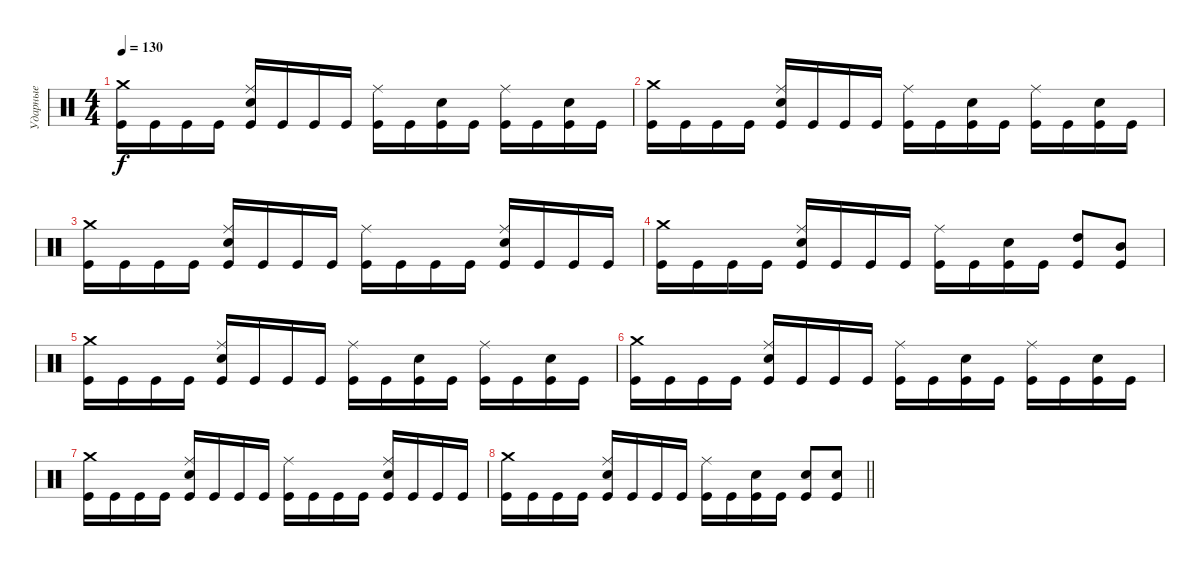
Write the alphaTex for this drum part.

\track ("Ударные" "Ударные") {instrument percussion}
\staff {score}
\articulation defaults
\ts (4 4)
\tempo 130
\clef neutral
\ks c
("Crash medium (hit)" "Kick (hit)").16{dy f} "Kick (hit)".16 "Kick (hit)".16 "Kick (hit)".16 ("Ride (middle)" "Electric Snare (hit)" "Kick (hit)").16 "Kick (hit)".16 "Kick (hit)".16 "Kick (hit)".16 ("Ride (middle)" "Kick (hit)").16 "Kick (hit)".16 ("Electric Snare (hit)" "Kick (hit)").16 "Kick (hit)".16 ("Ride (middle)" "Kick (hit)").16 "Kick (hit)".16 ("Electric Snare (hit)" "Kick (hit)").16 "Kick (hit)".16 |
("Crash medium (hit)" "Kick (hit)").16 "Kick (hit)".16 "Kick (hit)".16 "Kick (hit)".16 ("Ride (middle)" "Electric Snare (hit)" "Kick (hit)").16 "Kick (hit)".16 "Kick (hit)".16 "Kick (hit)".16 ("Ride (middle)" "Kick (hit)").16 "Kick (hit)".16 ("Electric Snare (hit)" "Kick (hit)").16 "Kick (hit)".16 ("Ride (middle)" "Kick (hit)").16 "Kick (hit)".16 ("Electric Snare (hit)" "Kick (hit)").16 "Kick (hit)".16 |
("Crash medium (hit)" "Kick (hit)").16 "Kick (hit)".16 "Kick (hit)".16 "Kick (hit)".16 ("Ride (middle)" "Electric Snare (hit)" "Kick (hit)").16 "Kick (hit)".16 "Kick (hit)".16 "Kick (hit)".16 ("Ride (middle)" "Kick (hit)").16 "Kick (hit)".16 "Kick (hit)".16 "Kick (hit)".16 ("Ride (middle)" "Electric Snare (hit)" "Kick (hit)").16 "Kick (hit)".16 "Kick (hit)".16 "Kick (hit)".16 |
("Crash medium (hit)" "Kick (hit)").16 "Kick (hit)".16 "Kick (hit)".16 "Kick (hit)".16 ("Ride (middle)" "Electric Snare (hit)" "Kick (hit)").16 "Kick (hit)".16 "Kick (hit)".16 "Kick (hit)".16 ("Ride (middle)" "Kick (hit)").16 "Kick (hit)".16 ("Electric Snare (hit)" "Kick (hit)").16 "Kick (hit)".16 ("High Tom (hit)" "Kick (hit)").8 ("Mid Tom (hit)" "Kick (hit)").8 |
("Crash medium (hit)" "Kick (hit)").16 "Kick (hit)".16 "Kick (hit)".16 "Kick (hit)".16 ("Ride (middle)" "Electric Snare (hit)" "Kick (hit)").16 "Kick (hit)".16 "Kick (hit)".16 "Kick (hit)".16 ("Ride (middle)" "Kick (hit)").16 "Kick (hit)".16 ("Electric Snare (hit)" "Kick (hit)").16 "Kick (hit)".16 ("Ride (middle)" "Kick (hit)").16 "Kick (hit)".16 ("Electric Snare (hit)" "Kick (hit)").16 "Kick (hit)".16 |
("Crash medium (hit)" "Kick (hit)").16 "Kick (hit)".16 "Kick (hit)".16 "Kick (hit)".16 ("Ride (middle)" "Electric Snare (hit)" "Kick (hit)").16 "Kick (hit)".16 "Kick (hit)".16 "Kick (hit)".16 ("Ride (middle)" "Kick (hit)").16 "Kick (hit)".16 ("Electric Snare (hit)" "Kick (hit)").16 "Kick (hit)".16 ("Ride (middle)" "Kick (hit)").16 "Kick (hit)".16 ("Electric Snare (hit)" "Kick (hit)").16 "Kick (hit)".16 |
("Crash medium (hit)" "Kick (hit)").16 "Kick (hit)".16 "Kick (hit)".16 "Kick (hit)".16 ("Ride (middle)" "Electric Snare (hit)" "Kick (hit)").16 "Kick (hit)".16 "Kick (hit)".16 "Kick (hit)".16 ("Ride (middle)" "Kick (hit)").16 "Kick (hit)".16 "Kick (hit)".16 "Kick (hit)".16 ("Ride (middle)" "Electric Snare (hit)" "Kick (hit)").16 "Kick (hit)".16 "Kick (hit)".16 "Kick (hit)".16 |
\barLineRight lightlight
("Crash medium (hit)" "Kick (hit)").16 "Kick (hit)".16 "Kick (hit)".16 "Kick (hit)".16 ("Ride (middle)" "Electric Snare (hit)" "Kick (hit)").16 "Kick (hit)".16 "Kick (hit)".16 "Kick (hit)".16 ("Ride (middle)" "Kick (hit)").16 "Kick (hit)".16 ("Electric Snare (hit)" "Kick (hit)").16 "Kick (hit)".16 ("Electric Snare (hit)" "Kick (hit)").8 ("Electric Snare (hit)" "Kick (hit)").8
